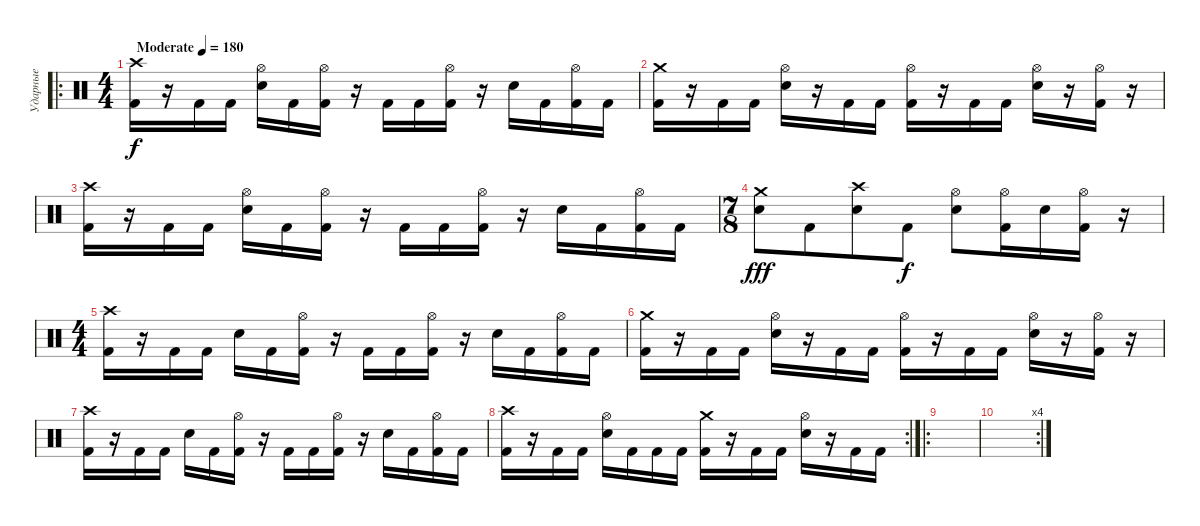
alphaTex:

\track ("Ударные" "Ударные") {instrument percussion}
\staff {score}
\articulation defaults
\ro
\ts (4 4)
\tempo (180 "Moderate")
\clef neutral
\ks c
("Crash high (hit)" "Kick (hit) 2").16{dy f} r.16 "Kick (hit) 2".16 "Kick (hit) 2".16 ("Hi-Hat (open)" "Electric Snare (hit)").16 "Kick (hit) 2".16 ("Hi-Hat (open)" "Kick (hit) 2").16 r.16 "Kick (hit) 2".16 "Kick (hit) 2".16 ("Hi-Hat (open)" "Kick (hit) 2").16 r.16 "Electric Snare (hit)".16 "Kick (hit) 2".16 ("Hi-Hat (open)" "Kick (hit) 2").16 "Kick (hit) 2".16 |
("Crash medium (hit)" "Kick (hit) 2").16 r.16 "Kick (hit) 2".16 "Kick (hit) 2".16 ("Hi-Hat (open)" "Electric Snare (hit)").16 r.16 "Kick (hit) 2".16 "Kick (hit) 2".16 ("Hi-Hat (open)" "Kick (hit) 2").16 r.16 "Kick (hit) 2".16 "Kick (hit) 2".16 ("Hi-Hat (open)" "Electric Snare (hit)").16 r.16 ("Hi-Hat (open)" "Kick (hit) 2").16 r.16 |
("Crash high (hit)" "Kick (hit) 2").16 r.16 "Kick (hit) 2".16 "Kick (hit) 2".16 ("Hi-Hat (open)" "Electric Snare (hit)").16 "Kick (hit) 2".16 ("Hi-Hat (open)" "Kick (hit) 2").16 r.16 "Kick (hit) 2".16 "Kick (hit) 2".16 ("Hi-Hat (open)" "Kick (hit) 2").16 r.16 "Electric Snare (hit)".16 "Kick (hit) 2".16 ("Hi-Hat (open)" "Kick (hit) 2").16 "Kick (hit) 2".16 |
\ts (7 8)
("Crash medium (hit)" "Electric Snare (hit)").8{dy fff} "Kick (hit) 2".8 ("Crash high (hit)" "Electric Snare (hit)").8 "Kick (hit) 2".8{dy f} ("Hi-Hat (open)" "Electric Snare (hit)").8 ("Hi-Hat (open)" "Kick (hit) 2").16 "Electric Snare (hit)".16 ("Hi-Hat (open)" "Kick (hit) 2").16 r.16 |
\ts (4 4)
("Crash high (hit)" "Kick (hit) 2").16 r.16 "Kick (hit) 2".16 "Kick (hit) 2".16 "Electric Snare (hit)".16 "Kick (hit) 2".16 ("Hi-Hat (open)" "Kick (hit) 2").16 r.16 "Kick (hit) 2".16 "Kick (hit) 2".16 ("Hi-Hat (open)" "Kick (hit) 2").16 r.16 "Electric Snare (hit)".16 "Kick (hit) 2".16 ("Hi-Hat (open)" "Kick (hit) 2").16 "Kick (hit) 2".16 |
("Crash medium (hit)" "Kick (hit) 2").16 r.16 "Kick (hit) 2".16 "Kick (hit) 2".16 ("Hi-Hat (open)" "Electric Snare (hit)").16 r.16 "Kick (hit) 2".16 "Kick (hit) 2".16 ("Hi-Hat (open)" "Kick (hit) 2").16 r.16 "Kick (hit) 2".16 "Kick (hit) 2".16 ("Hi-Hat (open)" "Electric Snare (hit)").16 r.16 ("Hi-Hat (open)" "Kick (hit) 2").16 r.16 |
("Crash high (hit)" "Kick (hit) 2").16 r.16 "Kick (hit) 2".16 "Kick (hit) 2".16 "Electric Snare (hit)".16 "Kick (hit) 2".16 ("Hi-Hat (open)" "Kick (hit) 2").16 r.16 "Kick (hit) 2".16 "Kick (hit) 2".16 ("Hi-Hat (open)" "Kick (hit) 2").16 r.16 "Electric Snare (hit)".16 "Kick (hit) 2".16 ("Hi-Hat (open)" "Kick (hit) 2").16 "Kick (hit) 2".16 |
\rc 2
("Crash high (hit)" "Kick (hit) 2").16 r.16 "Kick (hit) 2".16 "Kick (hit) 2".16 ("Hi-Hat (open)" "Electric Snare (hit)").16 "Kick (hit) 2".16 "Kick (hit) 2".16 "Kick (hit) 2".16 ("Crash medium (hit)" "Kick (hit) 2").16 r.16 "Kick (hit) 2".16 "Kick (hit) 2".16 ("Hi-Hat (open)" "Electric Snare (hit)").16 r.16 "Kick (hit) 2".16 "Kick (hit) 2".16 |
\ro
|
\rc 4
